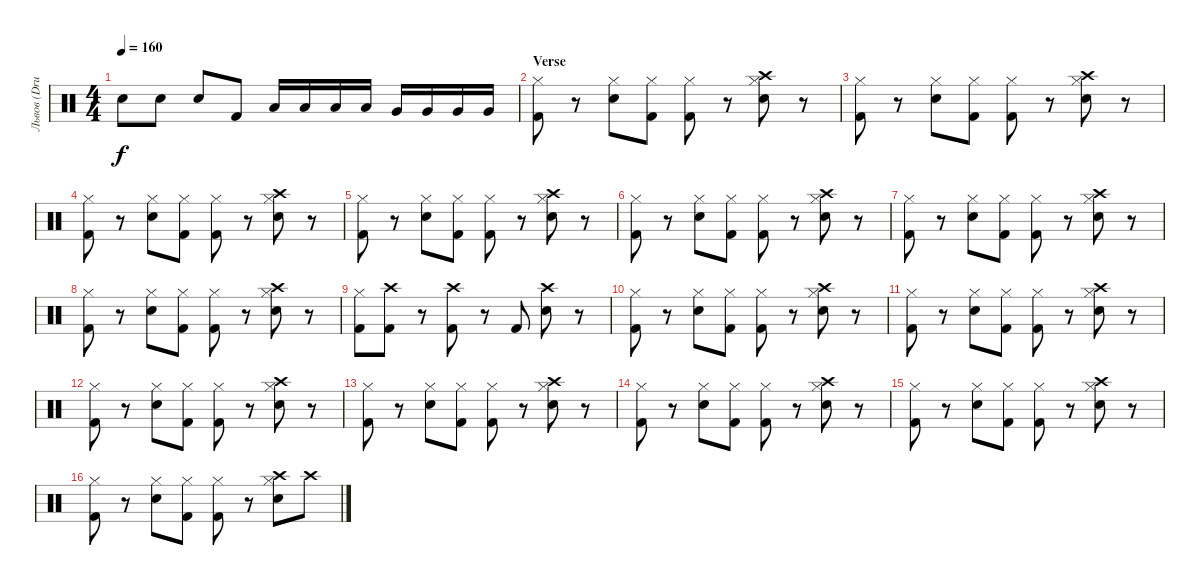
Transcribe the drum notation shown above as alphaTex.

\track ("Львов (Drums)" "Львов (Dru") {instrument percussion}
\staff {score}
\articulation defaults
\ts (4 4)
\tempo 160
\clef neutral
\ks c "Snare (hit)"{t}.8{dy f} "Electric Snare (hit)".8 "Electric Snare (hit)".8 "Kick (hit) 2".8 "Low Tom (hit)".16 "Low Tom (hit)".16 "Low Tom (hit)".16 "Low Tom (hit)".16 "Very Low Tom (hit)".16 "Very Low Tom (hit)".16 "Very Low Tom (hit)".16 "Very Low Tom (hit)".16
|
\section ("" "Verse")
("Kick (hit) 2" "Hi-Hat (closed)").8 r.8 ("Electric Snare (hit)" "Hi-Hat (closed)").8 ("Kick (hit) 2" "Hi-Hat (closed)").8 ("Kick (hit) 2" "Hi-Hat (closed)").8 r.8 ("Electric Snare (hit)" "Crash high (hit)" "Hi-Hat (closed)").8 r.8 |
("Kick (hit) 2" "Hi-Hat (closed)").8 r.8 ("Electric Snare (hit)" "Hi-Hat (closed)").8 ("Kick (hit) 2" "Hi-Hat (closed)").8 ("Kick (hit) 2" "Hi-Hat (closed)").8 r.8 ("Electric Snare (hit)" "Crash high (hit)" "Hi-Hat (closed)").8 r.8 |
("Kick (hit) 2" "Hi-Hat (closed)").8 r.8 ("Electric Snare (hit)" "Hi-Hat (closed)").8 ("Kick (hit) 2" "Hi-Hat (closed)").8 ("Kick (hit) 2" "Hi-Hat (closed)").8 r.8 ("Electric Snare (hit)" "Crash high (hit)" "Hi-Hat (closed)").8 r.8 |
("Kick (hit) 2" "Hi-Hat (closed)").8 r.8 ("Electric Snare (hit)" "Hi-Hat (closed)").8 ("Kick (hit) 2" "Hi-Hat (closed)").8 ("Kick (hit) 2" "Hi-Hat (closed)").8 r.8 ("Electric Snare (hit)" "Crash high (hit)" "Hi-Hat (closed)").8 r.8 |
("Kick (hit) 2" "Hi-Hat (closed)").8 r.8 ("Electric Snare (hit)" "Hi-Hat (closed)").8 ("Kick (hit) 2" "Hi-Hat (closed)").8 ("Kick (hit) 2" "Hi-Hat (closed)").8 r.8 ("Electric Snare (hit)" "Crash high (hit)" "Hi-Hat (closed)").8 r.8 |
("Kick (hit) 2" "Hi-Hat (closed)").8 r.8 ("Electric Snare (hit)" "Hi-Hat (closed)").8 ("Kick (hit) 2" "Hi-Hat (closed)").8 ("Kick (hit) 2" "Hi-Hat (closed)").8 r.8 ("Electric Snare (hit)" "Crash high (hit)" "Hi-Hat (closed)").8 r.8 |
("Kick (hit) 2" "Hi-Hat (closed)").8 r.8 ("Electric Snare (hit)" "Hi-Hat (closed)").8 ("Kick (hit) 2" "Hi-Hat (closed)").8 ("Kick (hit) 2" "Hi-Hat (closed)").8 r.8 ("Electric Snare (hit)" "Crash high (hit)" "Hi-Hat (closed)").8 r.8 |
("Kick (hit) 2" "Hi-Hat (closed)").8 ("Kick (hit) 2" "Crash high (hit)").8 r.8 ("Kick (hit) 2" "Crash high (hit)").8 r.8 "Kick (hit) 2".8 ("Electric Snare (hit)" "Crash high (hit)").8 r.8 |
("Kick (hit) 2" "Hi-Hat (closed)").8 r.8 ("Electric Snare (hit)" "Hi-Hat (closed)").8 ("Kick (hit) 2" "Hi-Hat (closed)").8 ("Kick (hit) 2" "Hi-Hat (closed)").8 r.8 ("Electric Snare (hit)" "Crash high (hit)" "Hi-Hat (closed)").8 r.8 |
("Kick (hit) 2" "Hi-Hat (closed)").8 r.8 ("Electric Snare (hit)" "Hi-Hat (closed)").8 ("Kick (hit) 2" "Hi-Hat (closed)").8 ("Kick (hit) 2" "Hi-Hat (closed)").8 r.8 ("Electric Snare (hit)" "Crash high (hit)" "Hi-Hat (closed)").8 r.8 |
("Kick (hit) 2" "Hi-Hat (closed)").8 r.8 ("Electric Snare (hit)" "Hi-Hat (closed)").8 ("Kick (hit) 2" "Hi-Hat (closed)").8 ("Kick (hit) 2" "Hi-Hat (closed)").8 r.8 ("Electric Snare (hit)" "Crash high (hit)" "Hi-Hat (closed)").8 r.8 |
("Kick (hit) 2" "Hi-Hat (closed)").8 r.8 ("Electric Snare (hit)" "Hi-Hat (closed)").8 ("Kick (hit) 2" "Hi-Hat (closed)").8 ("Kick (hit) 2" "Hi-Hat (closed)").8 r.8 ("Electric Snare (hit)" "Crash high (hit)" "Hi-Hat (closed)").8 r.8 |
("Kick (hit) 2" "Hi-Hat (closed)").8 r.8 ("Electric Snare (hit)" "Hi-Hat (closed)").8 ("Kick (hit) 2" "Hi-Hat (closed)").8 ("Kick (hit) 2" "Hi-Hat (closed)").8 r.8 ("Electric Snare (hit)" "Crash high (hit)" "Hi-Hat (closed)").8 r.8 |
("Kick (hit) 2" "Hi-Hat (closed)").8 r.8 ("Electric Snare (hit)" "Hi-Hat (closed)").8 ("Kick (hit) 2" "Hi-Hat (closed)").8 ("Kick (hit) 2" "Hi-Hat (closed)").8 r.8 ("Electric Snare (hit)" "Crash high (hit)" "Hi-Hat (closed)").8 r.8 |
("Kick (hit) 2" "Hi-Hat (closed)").8 r.8 ("Electric Snare (hit)" "Hi-Hat (closed)").8 ("Kick (hit) 2" "Hi-Hat (closed)").8 ("Kick (hit) 2" "Hi-Hat (closed)").8 r.8 ("Electric Snare (hit)" "Crash high (hit)" "Hi-Hat (closed)").8 "Crash high (hit)".8
